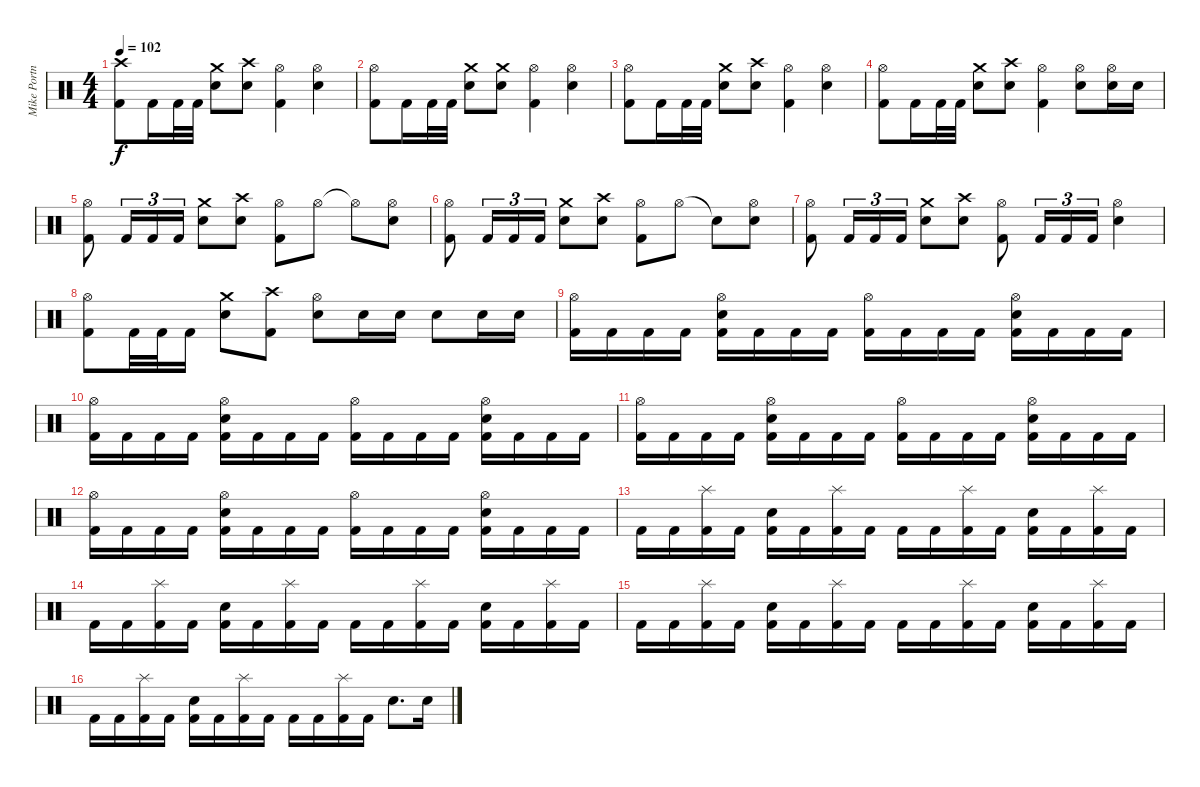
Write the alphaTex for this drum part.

\track ("Mike Portnoy Drum " "Mike Portn") {instrument percussion}
\staff {score}
\articulation defaults
\ts (4 4)
\tempo 102
\clef neutral
\ks c
("Crash high (hit)" "Kick (hit) 2").8{dy f} "Kick (hit) 2".16 "Kick (hit) 2".32 "Kick (hit) 2".32 ("Crash medium (hit)" "Electric Snare (hit)").8 ("Crash high (hit)" "Electric Snare (hit)").8 ("Hi-Hat (open)" "Kick (hit) 2").4 ("Hi-Hat (open)" "Electric Snare (hit)").4 |
("Hi-Hat (open)" "Kick (hit) 2").8 "Kick (hit) 2".16 "Kick (hit) 2".32 "Kick (hit) 2".32 ("Crash medium (hit)" "Electric Snare (hit)").8 ("Crash medium (hit)" "Electric Snare (hit)").8 ("Hi-Hat (open)" "Kick (hit) 2").4 ("Hi-Hat (open)" "Electric Snare (hit)").4 |
("Hi-Hat (open)" "Kick (hit) 2").8 "Kick (hit) 2".16 "Kick (hit) 2".32 "Kick (hit) 2".32 ("Crash medium (hit)" "Electric Snare (hit)").8 ("Crash high (hit)" "Electric Snare (hit)").8 ("Hi-Hat (open)" "Kick (hit) 2").4 ("Hi-Hat (open)" "Electric Snare (hit)").4 |
("Hi-Hat (open)" "Kick (hit) 2").8 "Kick (hit) 2".16 "Kick (hit) 2".32 "Kick (hit) 2".32 ("Crash medium (hit)" "Electric Snare (hit)").8 ("Crash high (hit)" "Electric Snare (hit)").8 ("Hi-Hat (open)" "Kick (hit) 2").4 ("Hi-Hat (open)" "Electric Snare (hit)").8 ("Hi-Hat (open)" "Electric Snare (hit)").16 "Electric Snare (hit)".16 |
("Hi-Hat (open)" "Kick (hit) 2").8 "Kick (hit) 2".16{tu (3 2)} "Kick (hit) 2".16{tu (3 2)} "Kick (hit) 2".16{tu (3 2)} ("Crash medium (hit)" "Electric Snare (hit)").8 ("Crash high (hit)" "Electric Snare (hit)").8 ("Hi-Hat (open)" "Kick (hit) 2").8 "Hi-Hat (open)".8 "Hi-Hat (open)"{t}.8 ("Hi-Hat (open)" "Electric Snare (hit)").8 |
("Hi-Hat (open)" "Kick (hit) 2").8 "Kick (hit) 2".16{tu (3 2)} "Kick (hit) 2".16{tu (3 2)} "Kick (hit) 2".16{tu (3 2)} ("Crash medium (hit)" "Electric Snare (hit)").8 ("Crash high (hit)" "Electric Snare (hit)").8 ("Hi-Hat (open)" "Kick (hit) 2").8 "Hi-Hat (open)".8 "Snare (hit)"{t}.8 ("Hi-Hat (open)" "Electric Snare (hit)").8 |
("Hi-Hat (open)" "Kick (hit) 2").8 "Kick (hit) 2".16{tu (3 2)} "Kick (hit) 2".16{tu (3 2)} "Kick (hit) 2".16{tu (3 2)} ("Crash medium (hit)" "Electric Snare (hit)").8 ("Crash high (hit)" "Electric Snare (hit)").8 ("Hi-Hat (open)" "Kick (hit) 2").8 "Kick (hit) 2".16{tu (3 2)} "Kick (hit) 2".16{tu (3 2)} "Kick (hit) 2".16{tu (3 2)} ("Hi-Hat (open)" "Electric Snare (hit)").4 |
("Hi-Hat (open)" "Kick (hit) 2").8 "Kick (hit) 2".32 "Kick (hit) 2".32 "Kick (hit) 2".16 ("Crash medium (hit)" "Electric Snare (hit)").8 ("Crash high (hit)" "Kick (hit) 2").8 ("Hi-Hat (open)" "Electric Snare (hit)").8 "Electric Snare (hit)".16 "Electric Snare (hit)".16 "Electric Snare (hit)".8 "Electric Snare (hit)".16 "Electric Snare (hit)".16 |
("Hi-Hat (open)" "Kick (hit) 2").16 "Kick (hit) 2".16 "Kick (hit) 2".16 "Kick (hit) 2".16 ("Hi-Hat (open)" "Electric Snare (hit)" "Kick (hit) 2").16 "Kick (hit) 2".16 "Kick (hit) 2".16 "Kick (hit) 2".16 ("Hi-Hat (open)" "Kick (hit) 2").16 "Kick (hit) 2".16 "Kick (hit) 2".16 "Kick (hit) 2".16 ("Hi-Hat (open)" "Electric Snare (hit)" "Kick (hit) 2").16 "Kick (hit) 2".16 "Kick (hit) 2".16 "Kick (hit) 2".16 |
("Hi-Hat (open)" "Kick (hit) 2").16 "Kick (hit) 2".16 "Kick (hit) 2".16 "Kick (hit) 2".16 ("Hi-Hat (open)" "Electric Snare (hit)" "Kick (hit) 2").16 "Kick (hit) 2".16 "Kick (hit) 2".16 "Kick (hit) 2".16 ("Hi-Hat (open)" "Kick (hit) 2").16 "Kick (hit) 2".16 "Kick (hit) 2".16 "Kick (hit) 2".16 ("Hi-Hat (open)" "Electric Snare (hit)" "Kick (hit) 2").16 "Kick (hit) 2".16 "Kick (hit) 2".16 "Kick (hit) 2".16 |
("Hi-Hat (open)" "Kick (hit) 2").16 "Kick (hit) 2".16 "Kick (hit) 2".16 "Kick (hit) 2".16 ("Hi-Hat (open)" "Electric Snare (hit)" "Kick (hit) 2").16 "Kick (hit) 2".16 "Kick (hit) 2".16 "Kick (hit) 2".16 ("Hi-Hat (open)" "Kick (hit) 2").16 "Kick (hit) 2".16 "Kick (hit) 2".16 "Kick (hit) 2".16 ("Hi-Hat (open)" "Electric Snare (hit)" "Kick (hit) 2").16 "Kick (hit) 2".16 "Kick (hit) 2".16 "Kick (hit) 2".16 |
("Hi-Hat (open)" "Kick (hit) 2").16 "Kick (hit) 2".16 "Kick (hit) 2".16 "Kick (hit) 2".16 ("Hi-Hat (open)" "Electric Snare (hit)" "Kick (hit) 2").16 "Kick (hit) 2".16 "Kick (hit) 2".16 "Kick (hit) 2".16 ("Hi-Hat (open)" "Kick (hit) 2").16 "Kick (hit) 2".16 "Kick (hit) 2".16 "Kick (hit) 2".16 ("Hi-Hat (open)" "Electric Snare (hit)" "Kick (hit) 2").16 "Kick (hit) 2".16 "Kick (hit) 2".16 "Kick (hit) 2".16 |
"Kick (hit) 2".16 "Kick (hit) 2".16 ("Splash (hit)" "Kick (hit) 2").16 "Kick (hit) 2".16 ("Electric Snare (hit)" "Kick (hit) 2").16 "Kick (hit) 2".16 ("Splash (hit)" "Kick (hit) 2").16 "Kick (hit) 2".16 "Kick (hit) 2".16 "Kick (hit) 2".16 ("Splash (hit)" "Kick (hit) 2").16 "Kick (hit) 2".16 ("Electric Snare (hit)" "Kick (hit) 2").16 "Kick (hit) 2".16 ("Splash (hit)" "Kick (hit) 2").16 "Kick (hit) 2".16 |
"Kick (hit) 2".16 "Kick (hit) 2".16 ("Splash (hit)" "Kick (hit) 2").16 "Kick (hit) 2".16 ("Electric Snare (hit)" "Kick (hit) 2").16 "Kick (hit) 2".16 ("Splash (hit)" "Kick (hit) 2").16 "Kick (hit) 2".16 "Kick (hit) 2".16 "Kick (hit) 2".16 ("Splash (hit)" "Kick (hit) 2").16 "Kick (hit) 2".16 ("Electric Snare (hit)" "Kick (hit) 2").16 "Kick (hit) 2".16 ("Splash (hit)" "Kick (hit) 2").16 "Kick (hit) 2".16 |
"Kick (hit) 2".16 "Kick (hit) 2".16 ("Splash (hit)" "Kick (hit) 2").16 "Kick (hit) 2".16 ("Electric Snare (hit)" "Kick (hit) 2").16 "Kick (hit) 2".16 ("Splash (hit)" "Kick (hit) 2").16 "Kick (hit) 2".16 "Kick (hit) 2".16 "Kick (hit) 2".16 ("Splash (hit)" "Kick (hit) 2").16 "Kick (hit) 2".16 ("Electric Snare (hit)" "Kick (hit) 2").16 "Kick (hit) 2".16 ("Splash (hit)" "Kick (hit) 2").16 "Kick (hit) 2".16 |
"Kick (hit) 2".16 "Kick (hit) 2".16 ("Splash (hit)" "Kick (hit) 2").16 "Kick (hit) 2".16 ("Electric Snare (hit)" "Kick (hit) 2").16 "Kick (hit) 2".16 ("Splash (hit)" "Kick (hit) 2").16 "Kick (hit) 2".16 "Kick (hit) 2".16 "Kick (hit) 2".16 ("Splash (hit)" "Kick (hit) 2").16 "Kick (hit) 2".16 "Electric Snare (hit)".8{d} "Electric Snare (hit)".16
